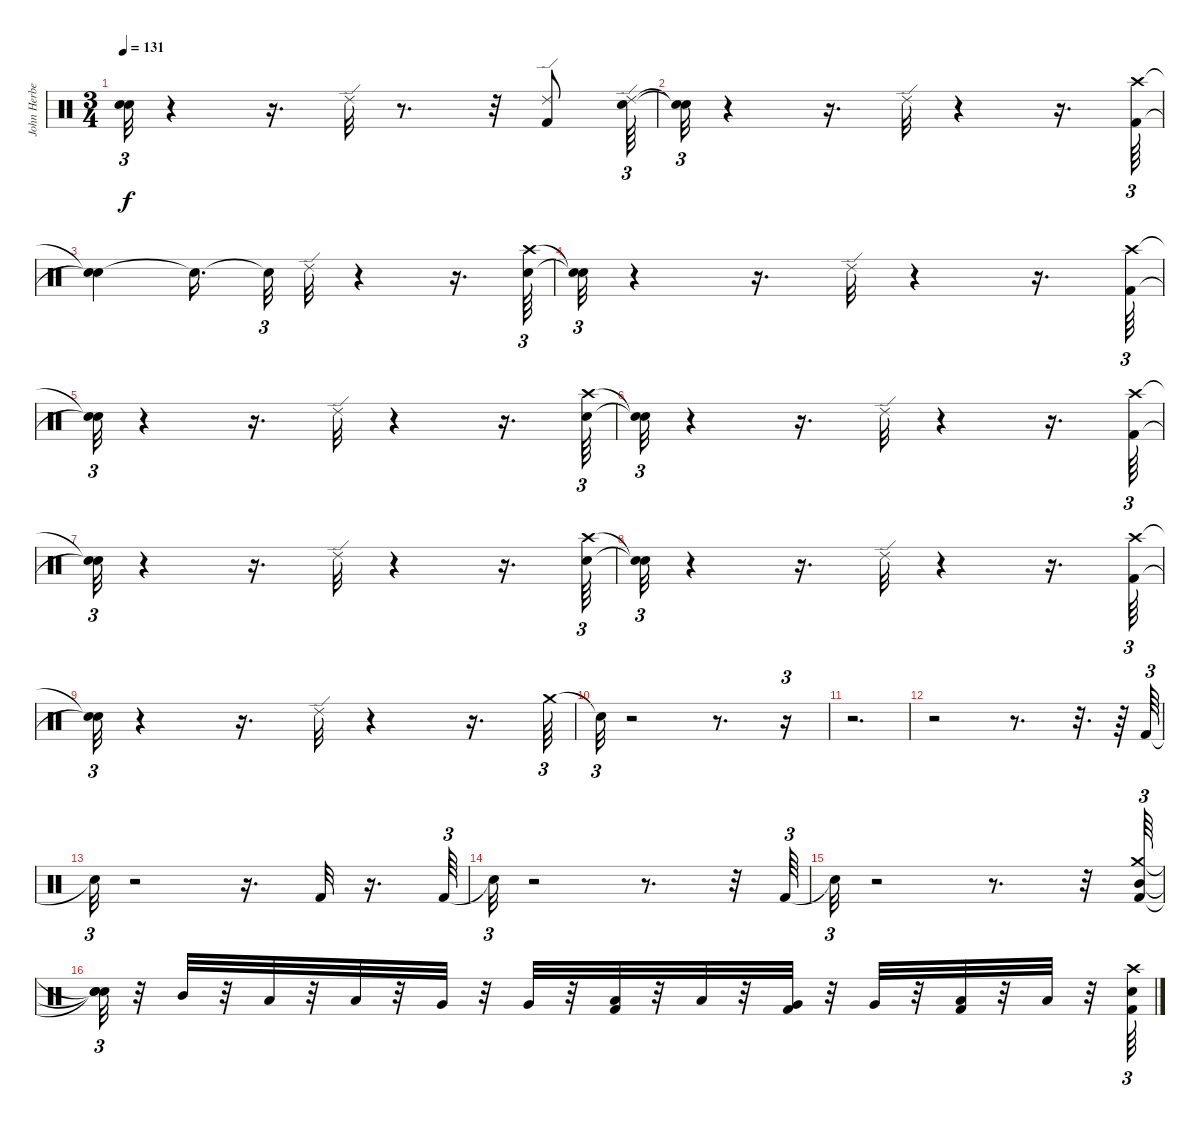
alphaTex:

\track ("John Herbert" "John Herbe") {instrument percussion}
\staff {score}
\articulation defaults
\ts (3 4)
\tempo 131
\clef neutral
\ks c
("Snare (hit)"{t} "Snare (hit)"{t}).32{tu (3 2) dy f} r.4 r.16{d} "Ride (edge) 2".32 r.8{d} r.32 ("Ride (edge) 2" "Kick (hit) 2").8 ("Snare (hit) 2" "Ride (edge) 2").64{tu (3 2)} |
("Snare (hit)"{t} "Snare (hit)"{t}).32{tu (3 2)} r.4 r.16{d} "Ride (edge) 2".32 r.4 r.16{d} ("Kick (hit) 2" "Crash high (hit)").64{tu (3 2)} |
("Snare (hit)"{t} "Snare (hit)"{t}).4 "Snare (hit)"{t}.16{d} "Snare (hit)"{t}.32{tu (3 2)} "Ride (edge) 2".32 r.4 r.16{d} ("Crash high (hit)" "Electric Snare (hit)").64{tu (3 2)} |
("Snare (hit)"{t} "Snare (hit)"{t}).32{tu (3 2)} r.4 r.16{d} "Ride (edge) 2".32 r.4 r.16{d} ("Kick (hit) 2" "Crash high (hit)").64{tu (3 2)} |
("Snare (hit)"{t} "Snare (hit)"{t}).32{tu (3 2)} r.4 r.16{d} "Ride (edge) 2".32 r.4 r.16{d} ("Crash high (hit)" "Snare (hit) 2").64{tu (3 2)} |
("Snare (hit)"{t} "Snare (hit)"{t}).32{tu (3 2)} r.4 r.16{d} "Ride (edge) 2".32 r.4 r.16{d} ("Kick (hit) 2" "Crash high (hit)").64{tu (3 2)} |
("Snare (hit)"{t} "Snare (hit)"{t}).32{tu (3 2)} r.4 r.16{d} "Ride (edge) 2".32 r.4 r.16{d} ("Snare (hit) 2" "Crash high (hit)").64{tu (3 2)} |
("Snare (hit)"{t} "Snare (hit)"{t}).32{tu (3 2)} r.4 r.16{d} "Ride (edge) 2".32 r.4 r.16{d} ("Kick (hit) 2" "Crash high (hit)").64{tu (3 2)} |
("Snare (hit)"{t} "Snare (hit)"{t}).32{tu (3 2)} r.4 r.16{d} "Ride (edge) 2".32 r.4 r.16{d} "Crash medium (hit)".64{tu (3 2)} |
"Snare (hit)"{t}.32{tu (3 2)} r.2 r.8{d} r.16{tu (3 2)} |
r.2{d} |
r.2 r.8{d} r.32{d} r.64 "Kick (hit) 2".64{tu (3 2)} |
"Snare (hit)"{t}.32{tu (3 2)} r.2 r.16{d} "Kick (hit) 2".32 r.16{d} "Kick (hit) 2".64{tu (3 2)} |
"Snare (hit)"{t}.32{tu (3 2)} r.2 r.8{d} r.32 "Kick (hit) 2".64{tu (3 2)} |
"Snare (hit)"{t}.32{tu (3 2)} r.2 r.8{d} r.32 ("Mid Tom (hit)" "Crash medium (hit)" "Kick (hit) 2").64{tu (3 2)} |
("Snare (hit)"{t} "Snare (hit)"{t} "Snare (hit)"{t}).32{tu (3 2)} r.32 "Mid Tom (hit)".32 r.32 "Low Tom (hit)".32 r.32 "Low Tom (hit)".32 r.32 "Very Low Tom (hit)".32 r.32 "Very Low Tom (hit)".32 r.32 ("Kick (hit) 2" "Low Tom (hit)").32 r.32 "Low Tom (hit)".32 r.32 ("Kick (hit) 2" "Very Low Tom (hit)").32 r.32 "Very Low Tom (hit)".32 r.32 ("Kick (hit) 2" "Low Floor Tom (hit)").32 r.32 "Low Floor Tom (hit)".32 r.32 ("Snare (hit) 2" "Kick (hit) 2" "Crash high (hit)").64{tu (3 2)}
